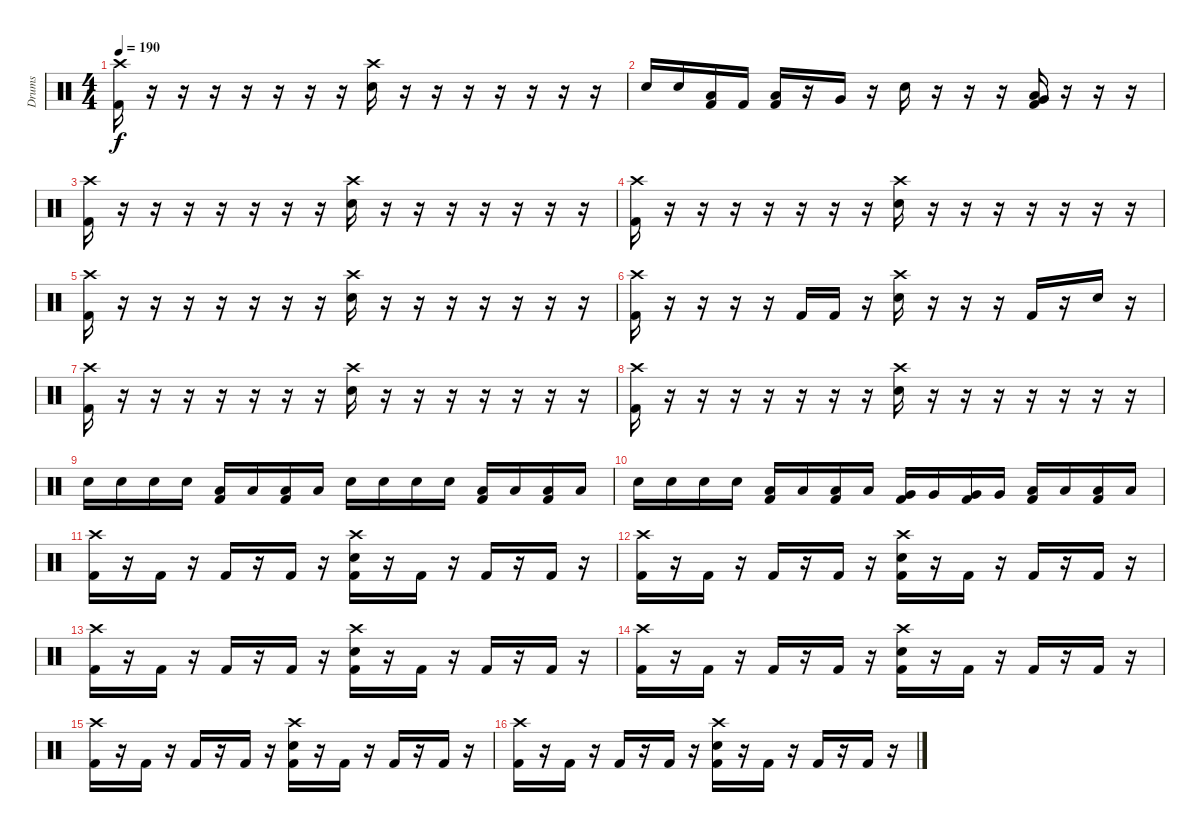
\track ("Drums" "Drums") {instrument percussion}
\staff {score}
\articulation defaults
\ts (4 4)
\tempo 190
\clef neutral
\ks c
("Crash high (hit)" "Kick (hit) 2").16{dy f} r.16 r.16 r.16 r.16 r.16 r.16 r.16 ("Crash high (hit)" "Electric Snare (hit)").16 r.16 r.16 r.16 r.16 r.16 r.16 r.16 |
"Electric Snare (hit)".16 "Electric Snare (hit)".16 ("Low Tom (hit)" "Kick (hit) 2").16 "Kick (hit) 2".16 ("Low Tom (hit)" "Kick (hit) 2").16 r.16 "Very Low Tom (hit)".16 r.16 "Electric Snare (hit)".16 r.16 r.16 r.16 ("Low Floor Tom (hit)" "Very Low Tom (hit)" "Kick (hit) 2").16 r.16 r.16 r.16 |
("Crash high (hit)" "Kick (hit) 2").16 r.16 r.16 r.16 r.16 r.16 r.16 r.16 ("Crash high (hit)" "Electric Snare (hit)").16 r.16 r.16 r.16 r.16 r.16 r.16 r.16 |
("Crash high (hit)" "Kick (hit) 2").16 r.16 r.16 r.16 r.16 r.16 r.16 r.16 ("Crash high (hit)" "Electric Snare (hit)").16 r.16 r.16 r.16 r.16 r.16 r.16 r.16 |
("Crash high (hit)" "Kick (hit) 2").16 r.16 r.16 r.16 r.16 r.16 r.16 r.16 ("Crash high (hit)" "Electric Snare (hit)").16 r.16 r.16 r.16 r.16 r.16 r.16 r.16 |
("Crash high (hit)" "Kick (hit) 2").16 r.16 r.16 r.16 r.16 "Kick (hit) 2".16 "Kick (hit) 2".16 r.16 ("Crash high (hit)" "Electric Snare (hit)").16 r.16 r.16 r.16 "Kick (hit) 2".16 r.16 "Electric Snare (hit)".16 r.16 |
("Crash high (hit)" "Kick (hit) 2").16 r.16 r.16 r.16 r.16 r.16 r.16 r.16 ("Crash high (hit)" "Electric Snare (hit)").16 r.16 r.16 r.16 r.16 r.16 r.16 r.16 |
("Crash high (hit)" "Kick (hit) 2").16 r.16 r.16 r.16 r.16 r.16 r.16 r.16 ("Crash high (hit)" "Electric Snare (hit)").16 r.16 r.16 r.16 r.16 r.16 r.16 r.16 |
"Electric Snare (hit)".16 "Electric Snare (hit)".16 "Electric Snare (hit)".16 "Electric Snare (hit)".16 ("Low Tom (hit)" "Kick (hit) 2").16 "Low Tom (hit)".16 ("Low Tom (hit)" "Kick (hit) 2").16 "Low Tom (hit)".16 "Electric Snare (hit)".16 "Electric Snare (hit)".16 "Electric Snare (hit)".16 "Electric Snare (hit)".16 ("Low Tom (hit)" "Kick (hit) 2").16 "Low Tom (hit)".16 ("Low Tom (hit)" "Kick (hit) 2").16 "Low Tom (hit)".16 |
"Electric Snare (hit)".16 "Electric Snare (hit)".16 "Electric Snare (hit)".16 "Electric Snare (hit)".16 ("Low Tom (hit)" "Kick (hit) 2").16 "Low Tom (hit)".16 ("Low Tom (hit)" "Kick (hit) 2").16 "Low Tom (hit)".16 ("Very Low Tom (hit)" "Kick (hit) 2").16 "Very Low Tom (hit)".16 ("Very Low Tom (hit)" "Kick (hit) 2").16 "Very Low Tom (hit)".16 ("Low Floor Tom (hit)" "Kick (hit) 2").16 "Low Floor Tom (hit)".16 ("Low Floor Tom (hit)" "Kick (hit) 2").16 "Low Floor Tom (hit)".16 |
("Crash high (hit)" "Kick (hit) 2").16 r.16 "Kick (hit) 2".16 r.16 "Kick (hit) 2".16 r.16 "Kick (hit) 2".16 r.16 ("Crash high (hit)" "Electric Snare (hit)" "Kick (hit) 2").16 r.16 "Kick (hit) 2".16 r.16 "Kick (hit) 2".16 r.16 "Kick (hit) 2".16 r.16 |
("Crash high (hit)" "Kick (hit) 2").16 r.16 "Kick (hit) 2".16 r.16 "Kick (hit) 2".16 r.16 "Kick (hit) 2".16 r.16 ("Crash high (hit)" "Electric Snare (hit)" "Kick (hit) 2").16 r.16 "Kick (hit) 2".16 r.16 "Kick (hit) 2".16 r.16 "Kick (hit) 2".16 r.16 |
("Crash high (hit)" "Kick (hit) 2").16 r.16 "Kick (hit) 2".16 r.16 "Kick (hit) 2".16 r.16 "Kick (hit) 2".16 r.16 ("Crash high (hit)" "Electric Snare (hit)" "Kick (hit) 2").16 r.16 "Kick (hit) 2".16 r.16 "Kick (hit) 2".16 r.16 "Kick (hit) 2".16 r.16 |
("Crash high (hit)" "Kick (hit) 2").16 r.16 "Kick (hit) 2".16 r.16 "Kick (hit) 2".16 r.16 "Kick (hit) 2".16 r.16 ("Crash high (hit)" "Electric Snare (hit)" "Kick (hit) 2").16 r.16 "Kick (hit) 2".16 r.16 "Kick (hit) 2".16 r.16 "Kick (hit) 2".16 r.16 |
("Crash high (hit)" "Kick (hit) 2").16 r.16 "Kick (hit) 2".16 r.16 "Kick (hit) 2".16 r.16 "Kick (hit) 2".16 r.16 ("Crash high (hit)" "Electric Snare (hit)" "Kick (hit) 2").16 r.16 "Kick (hit) 2".16 r.16 "Kick (hit) 2".16 r.16 "Kick (hit) 2".16 r.16 |
("Crash high (hit)" "Kick (hit) 2").16 r.16 "Kick (hit) 2".16 r.16 "Kick (hit) 2".16 r.16 "Kick (hit) 2".16 r.16 ("Crash high (hit)" "Electric Snare (hit)" "Kick (hit) 2").16 r.16 "Kick (hit) 2".16 r.16 "Kick (hit) 2".16 r.16 "Kick (hit) 2".16 r.16
